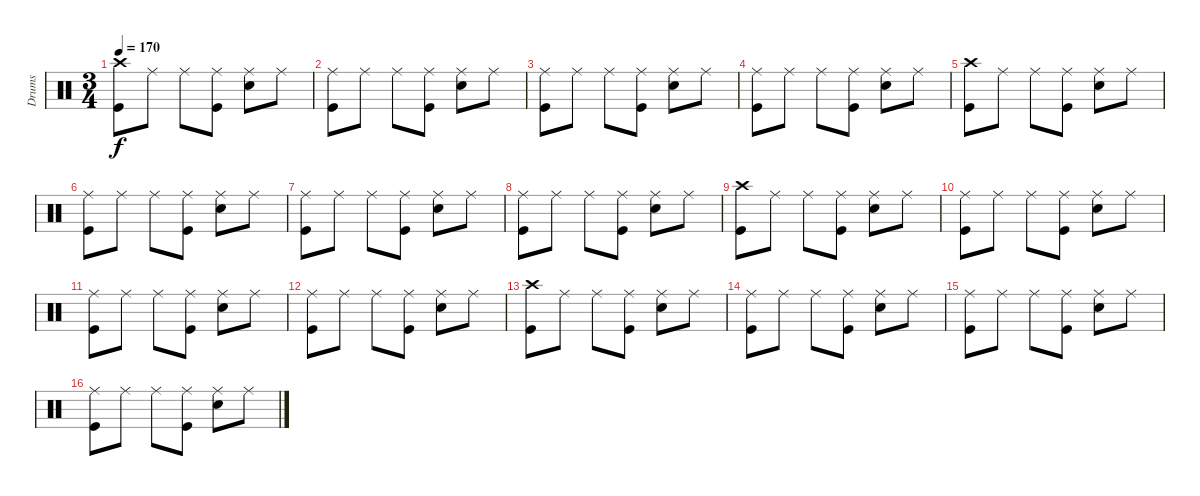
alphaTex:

\track ("Drums" "Drums") {instrument percussion}
\staff {score}
\articulation defaults
\ts (3 4)
\tempo 170
\clef neutral
\ks c
("Crash high (hit)" "Kick (hit)").8{dy f} "Ride (middle)".8 "Ride (middle)".8 ("Ride (middle)" "Kick (hit)").8 ("Ride (middle)" "Snare (hit) 2").8 "Ride (middle)".8 |
("Ride (middle)" "Kick (hit)").8 "Ride (middle)".8 "Ride (middle)".8 ("Ride (middle)" "Kick (hit)").8 ("Ride (middle)" "Snare (hit) 2").8 "Ride (middle)".8 |
("Ride (middle)" "Kick (hit)").8 "Ride (middle)".8 "Ride (middle)".8 ("Ride (middle)" "Kick (hit)").8 ("Ride (middle)" "Snare (hit) 2").8 "Ride (middle)".8 |
("Ride (middle)" "Kick (hit)").8 "Ride (middle)".8 "Ride (middle)".8 ("Ride (middle)" "Kick (hit)").8 ("Ride (middle)" "Snare (hit) 2").8 "Ride (middle)".8 |
("Crash high (hit)" "Kick (hit)").8 "Ride (middle)".8 "Ride (middle)".8 ("Ride (middle)" "Kick (hit)").8 ("Ride (middle)" "Snare (hit) 2").8 "Ride (middle)".8 |
("Ride (middle)" "Kick (hit)").8 "Ride (middle)".8 "Ride (middle)".8 ("Ride (middle)" "Kick (hit)").8 ("Ride (middle)" "Snare (hit) 2").8 "Ride (middle)".8 |
("Ride (middle)" "Kick (hit)").8 "Ride (middle)".8 "Ride (middle)".8 ("Ride (middle)" "Kick (hit)").8 ("Ride (middle)" "Snare (hit) 2").8 "Ride (middle)".8 |
("Ride (middle)" "Kick (hit)").8 "Ride (middle)".8 "Ride (middle)".8 ("Ride (middle)" "Kick (hit)").8 ("Ride (middle)" "Snare (hit) 2").8 "Ride (middle)".8 |
("Crash high (hit)" "Kick (hit)").8 "Ride (middle)".8 "Ride (middle)".8 ("Ride (middle)" "Kick (hit)").8 ("Ride (middle)" "Snare (hit) 2").8 "Ride (middle)".8 |
("Ride (middle)" "Kick (hit)").8 "Ride (middle)".8 "Ride (middle)".8 ("Ride (middle)" "Kick (hit)").8 ("Ride (middle)" "Snare (hit) 2").8 "Ride (middle)".8 |
("Ride (middle)" "Kick (hit)").8 "Ride (middle)".8 "Ride (middle)".8 ("Ride (middle)" "Kick (hit)").8 ("Ride (middle)" "Snare (hit) 2").8 "Ride (middle)".8 |
("Ride (middle)" "Kick (hit)").8 "Ride (middle)".8 "Ride (middle)".8 ("Ride (middle)" "Kick (hit)").8 ("Ride (middle)" "Snare (hit) 2").8 "Ride (middle)".8 |
("Crash high (hit)" "Kick (hit)").8 "Ride (middle)".8 "Ride (middle)".8 ("Ride (middle)" "Kick (hit)").8 ("Ride (middle)" "Snare (hit) 2").8 "Ride (middle)".8 |
("Ride (middle)" "Kick (hit)").8 "Ride (middle)".8 "Ride (middle)".8 ("Ride (middle)" "Kick (hit)").8 ("Ride (middle)" "Snare (hit) 2").8 "Ride (middle)".8 |
("Ride (middle)" "Kick (hit)").8 "Ride (middle)".8 "Ride (middle)".8 ("Ride (middle)" "Kick (hit)").8 ("Ride (middle)" "Snare (hit) 2").8 "Ride (middle)".8 |
("Ride (middle)" "Kick (hit)").8 "Ride (middle)".8 "Ride (middle)".8 ("Ride (middle)" "Kick (hit)").8 ("Ride (middle)" "Snare (hit) 2").8 "Ride (middle)".8
